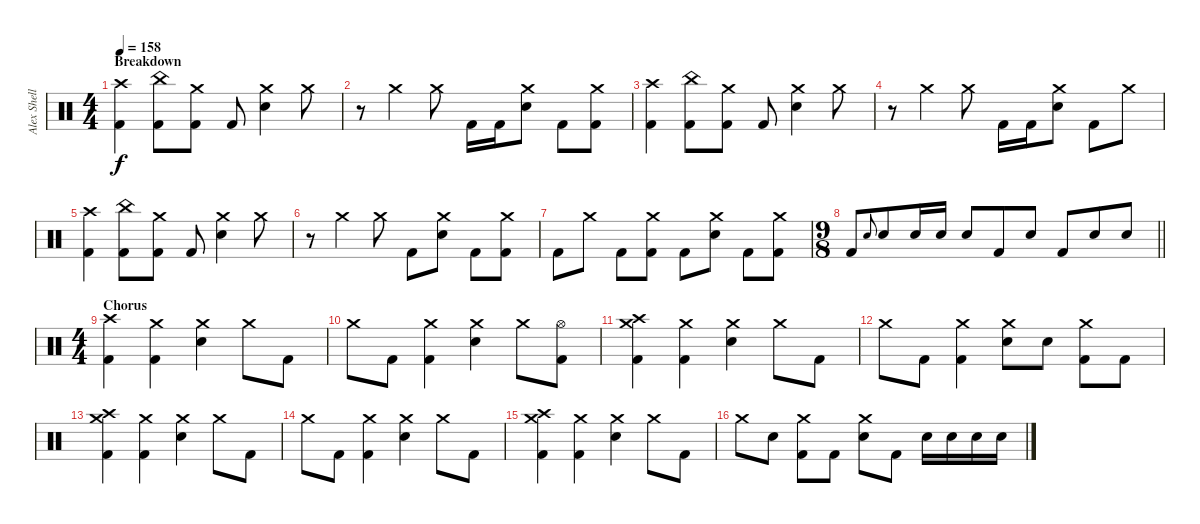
\track ("Alex Shellnut" "Alex Shell") {instrument percussion}
\staff {score}
\articulation defaults
\ts (4 4)
\section ("" "Breakdown")
\tempo 158
\clef neutral
\ks c
("Crash high (hit)" "Kick (hit) 2").4{dy f} ("China (hit)" "Kick (hit) 2").8 ("Crash medium (hit)" "Kick (hit) 2").8 "Kick (hit) 2".8 ("Crash medium (hit)" "Electric Snare (hit)").4 "Crash medium (hit)".8 |
r.8 "Crash medium (hit)".4 "Crash medium (hit)".8 "Kick (hit) 2".16 "Kick (hit) 2".16 ("Crash medium (hit)" "Electric Snare (hit)").8 "Kick (hit) 2".8 ("Crash medium (hit)" "Kick (hit) 2").8 |
("Crash high (hit)" "Kick (hit) 2").4 ("China (hit)" "Kick (hit) 2").8 ("Crash medium (hit)" "Kick (hit) 2").8 "Kick (hit) 2".8 ("Crash medium (hit)" "Electric Snare (hit)").4 "Crash medium (hit)".8 |
r.8 "Crash medium (hit)".4 "Crash medium (hit)".8 "Kick (hit) 2".16 "Kick (hit) 2".16 ("Crash medium (hit)" "Electric Snare (hit)").8 "Kick (hit) 2".8 "Crash medium (hit)".8 |
("Crash high (hit)" "Kick (hit) 2").4 ("China (hit)" "Kick (hit) 2").8 ("Crash medium (hit)" "Kick (hit) 2").8 "Kick (hit) 2".8 ("Crash medium (hit)" "Electric Snare (hit)").4 "Crash medium (hit)".8 |
r.8 "Crash medium (hit)".4 "Crash medium (hit)".8 "Kick (hit) 2".8 ("Crash medium (hit)" "Electric Snare (hit)").8 "Kick (hit) 2".8 ("Crash medium (hit)" "Kick (hit) 2").8 |
"Kick (hit) 2".8 "Crash medium (hit)".8 "Kick (hit) 2".8 ("Crash medium (hit)" "Kick (hit) 2").8 "Kick (hit) 2".8 ("Crash medium (hit)" "Electric Snare (hit)").8 "Kick (hit) 2".8 ("Crash medium (hit)" "Kick (hit) 2").8 |
\ts (9 8)
\barLineRight lightlight "Kick (hit) 2".8 "Electric Snare (hit)".8{gr onbeat} "Electric Snare (hit)".8 "Electric Snare (hit)".16 "Electric Snare (hit)".16 "Electric Snare (hit)".8 "Kick (hit) 2".8 "Electric Snare (hit)".8 "Kick (hit) 2".8 "Electric Snare (hit)".8 "Electric Snare (hit)".8
|
\ts (4 4)
\section ("" "Chorus")
("Crash high (hit)" "Kick (hit) 2").4 ("Crash medium (hit)" "Kick (hit) 2").4 ("Crash medium (hit)" "Electric Snare (hit)").4 "Crash medium (hit)".8 "Kick (hit) 2".8 |
"Crash medium (hit)".8 "Kick (hit) 2".8 ("Crash medium (hit)" "Kick (hit) 2").4 ("Crash medium (hit)" "Electric Snare (hit)").4 "Crash medium (hit)".8 ("Hi-Hat (open)" "Kick (hit) 2").8 |
("Crash medium (hit)" "Crash high (hit)" "Kick (hit) 2").4 ("Crash medium (hit)" "Kick (hit) 2").4 ("Crash medium (hit)" "Electric Snare (hit)").4 "Crash medium (hit)".8 "Kick (hit) 2".8 |
"Crash medium (hit)".8 "Kick (hit) 2".8 ("Crash medium (hit)" "Kick (hit) 2").4 ("Crash medium (hit)" "Electric Snare (hit)").8 "Electric Snare (hit)".8 ("Crash medium (hit)" "Kick (hit) 2").8 "Kick (hit) 2".8 |
("Crash medium (hit)" "Crash high (hit)" "Kick (hit) 2").4 ("Crash medium (hit)" "Kick (hit) 2").4 ("Crash medium (hit)" "Electric Snare (hit)").4 "Crash medium (hit)".8 "Kick (hit) 2".8 |
"Crash medium (hit)".8 "Kick (hit) 2".8 ("Crash medium (hit)" "Kick (hit) 2").4 ("Crash medium (hit)" "Electric Snare (hit)").4 "Crash medium (hit)".8 "Kick (hit) 2".8 |
("Crash medium (hit)" "Crash high (hit)" "Kick (hit) 2").4 ("Crash medium (hit)" "Kick (hit) 2").4 ("Crash medium (hit)" "Electric Snare (hit)").4 "Crash medium (hit)".8 "Kick (hit) 2".8 |
"Crash medium (hit)".8 "Electric Snare (hit)".8 ("Crash medium (hit)" "Kick (hit) 2").8 "Kick (hit) 2".8 ("Crash medium (hit)" "Electric Snare (hit)").8 "Kick (hit) 2".8 "Electric Snare (hit)".16 "Electric Snare (hit)".16 "Electric Snare (hit)".16 "Electric Snare (hit)".16
